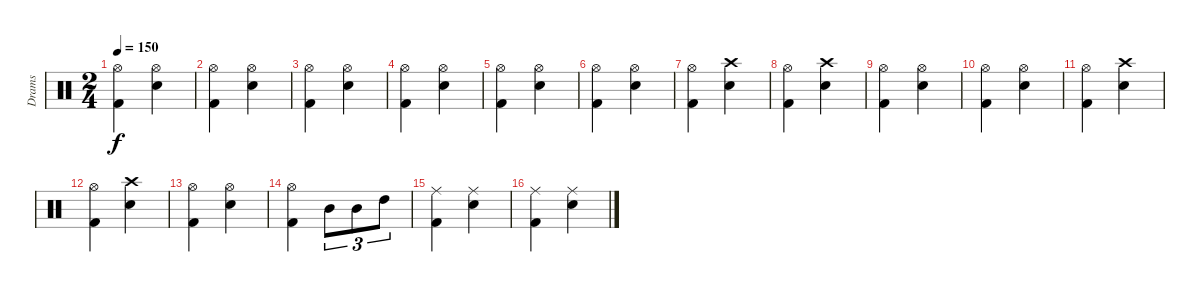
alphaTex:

\track ("Drams" "Drams") {instrument percussion}
\staff {score}
\articulation defaults
\ts (2 4)
\tempo 150
\clef neutral
\ks aminor
("Hi-Hat (open)" "Kick (hit) 2").4{dy f} ("Hi-Hat (open)" "Electric Snare (hit)").4 |
("Hi-Hat (open)" "Kick (hit) 2").4 ("Hi-Hat (open)" "Electric Snare (hit)").4 |
("Hi-Hat (open)" "Kick (hit) 2").4 ("Hi-Hat (open)" "Electric Snare (hit)").4 |
("Hi-Hat (open)" "Kick (hit) 2").4 ("Hi-Hat (open)" "Electric Snare (hit)").4 |
("Hi-Hat (open)" "Kick (hit) 2").4 ("Hi-Hat (open)" "Electric Snare (hit)").4 |
("Hi-Hat (open)" "Kick (hit) 2").4 ("Hi-Hat (open)" "Electric Snare (hit)").4 |
("Hi-Hat (open)" "Kick (hit) 2").4 ("Crash high (hit)" "Electric Snare (hit)").4 |
("Hi-Hat (open)" "Kick (hit) 2").4 ("Crash high (hit)" "Electric Snare (hit)").4 |
("Hi-Hat (open)" "Kick (hit) 2").4 ("Hi-Hat (open)" "Electric Snare (hit)").4 |
("Hi-Hat (open)" "Kick (hit) 2").4 ("Hi-Hat (open)" "Electric Snare (hit)").4 |
("Hi-Hat (open)" "Kick (hit) 2").4 ("Crash high (hit)" "Electric Snare (hit)").4 |
("Hi-Hat (open)" "Kick (hit) 2").4 ("Crash high (hit)" "Electric Snare (hit)").4 |
("Hi-Hat (open)" "Kick (hit) 2").4 ("Hi-Hat (open)" "Electric Snare (hit)").4 |
("Hi-Hat (open)" "Kick (hit) 2").4 "Mid Tom (hit)".8{tu (3 2)} "Mid Tom (hit)".8{tu (3 2)} "High Tom (hit)".8{tu (3 2)} |
("Ride (middle)" "Kick (hit) 2").4 ("Ride (middle)" "Electric Snare (hit)").4 |
("Ride (middle)" "Kick (hit) 2").4 ("Ride (middle)" "Electric Snare (hit)").4
